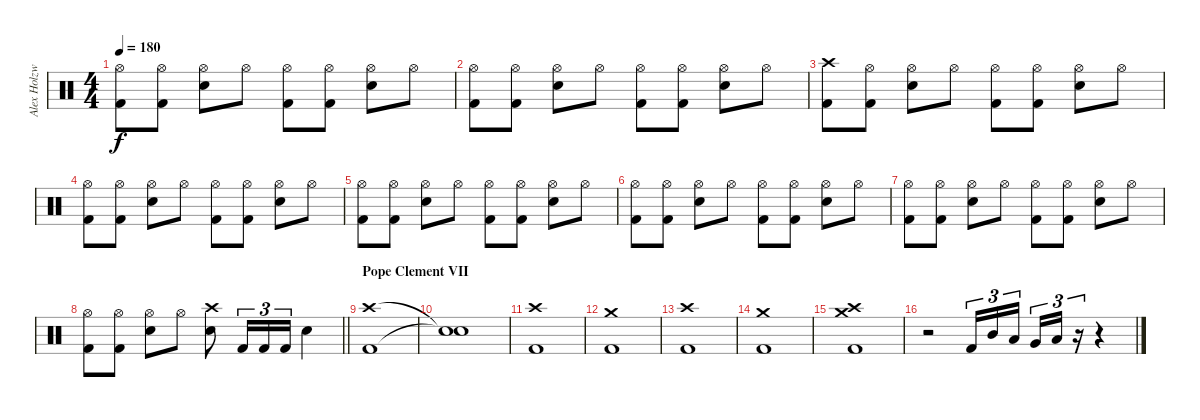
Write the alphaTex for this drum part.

\track ("Alex Holzwarth" "Alex Holzw") {instrument percussion}
\staff {score}
\articulation defaults
\ts (4 4)
\tempo 180
\clef neutral
\ks c
("Hi-Hat (open)" "Kick (hit) 2").8{dy f} ("Hi-Hat (open)" "Kick (hit) 2").8 ("Hi-Hat (open)" "Electric Snare (hit)").8 "Hi-Hat (open)".8 ("Hi-Hat (open)" "Kick (hit) 2").8 ("Hi-Hat (open)" "Kick (hit) 2").8 ("Hi-Hat (open)" "Electric Snare (hit)").8 "Hi-Hat (open)".8 |
("Hi-Hat (open)" "Kick (hit) 2").8 ("Hi-Hat (open)" "Kick (hit) 2").8 ("Hi-Hat (open)" "Electric Snare (hit)").8 "Hi-Hat (open)".8 ("Hi-Hat (open)" "Kick (hit) 2").8 ("Hi-Hat (open)" "Kick (hit) 2").8 ("Hi-Hat (open)" "Electric Snare (hit)").8 "Hi-Hat (open)".8 |
("Crash high (hit)" "Kick (hit) 2").8 ("Hi-Hat (open)" "Kick (hit) 2").8 ("Hi-Hat (open)" "Electric Snare (hit)").8 "Hi-Hat (open)".8 ("Hi-Hat (open)" "Kick (hit) 2").8 ("Hi-Hat (open)" "Kick (hit) 2").8 ("Hi-Hat (open)" "Electric Snare (hit)").8 "Hi-Hat (open)".8 |
("Hi-Hat (open)" "Kick (hit) 2").8 ("Hi-Hat (open)" "Kick (hit) 2").8 ("Hi-Hat (open)" "Electric Snare (hit)").8 "Hi-Hat (open)".8 ("Hi-Hat (open)" "Kick (hit) 2").8 ("Hi-Hat (open)" "Kick (hit) 2").8 ("Hi-Hat (open)" "Electric Snare (hit)").8 "Hi-Hat (open)".8 |
("Hi-Hat (open)" "Kick (hit) 2").8 ("Hi-Hat (open)" "Kick (hit) 2").8 ("Hi-Hat (open)" "Electric Snare (hit)").8 "Hi-Hat (open)".8 ("Hi-Hat (open)" "Kick (hit) 2").8 ("Hi-Hat (open)" "Kick (hit) 2").8 ("Hi-Hat (open)" "Electric Snare (hit)").8 "Hi-Hat (open)".8 |
("Hi-Hat (open)" "Kick (hit) 2").8 ("Hi-Hat (open)" "Kick (hit) 2").8 ("Hi-Hat (open)" "Electric Snare (hit)").8 "Hi-Hat (open)".8 ("Hi-Hat (open)" "Kick (hit) 2").8 ("Hi-Hat (open)" "Kick (hit) 2").8 ("Hi-Hat (open)" "Electric Snare (hit)").8 "Hi-Hat (open)".8 |
("Hi-Hat (open)" "Kick (hit) 2").8 ("Hi-Hat (open)" "Kick (hit) 2").8 ("Hi-Hat (open)" "Electric Snare (hit)").8 "Hi-Hat (open)".8 ("Hi-Hat (open)" "Kick (hit) 2").8 ("Hi-Hat (open)" "Kick (hit) 2").8 ("Hi-Hat (open)" "Electric Snare (hit)").8 "Hi-Hat (open)".8 |
\barLineRight lightlight
("Hi-Hat (open)" "Kick (hit) 2").8 ("Hi-Hat (open)" "Kick (hit) 2").8 ("Hi-Hat (open)" "Electric Snare (hit)").8 "Hi-Hat (open)".8 ("Crash high (hit)" "Electric Snare (hit)").8 "Kick (hit) 2".16{tu (3 2)} "Kick (hit) 2".16{tu (3 2)} "Kick (hit) 2".16{tu (3 2)} "Electric Snare (hit)".4 |
\section ("" "Pope Clement VII")
("Crash high (hit)" "Kick (hit) 2").1 |
("Snare (hit)"{t} "Snare (hit)"{t}).1 |
("Crash high (hit)" "Kick (hit) 2").1 |
("Crash medium (hit)" "Kick (hit) 2").1 |
("Crash high (hit)" "Kick (hit) 2").1 |
("Crash medium (hit)" "Kick (hit) 2").1 |
("Crash high (hit)" "Crash medium (hit)" "Kick (hit) 2").1 |
r.2 "Kick (hit) 2".16{tu (3 2)} "Mid Tom (hit)".16{tu (3 2)} "Low Tom (hit)".16{tu (3 2) beam splitsecondary} "Very Low Tom (hit)".16{tu (3 2)} "Low Floor Tom (hit)".16{tu (3 2)} r.16{tu (3 2)} r.4
